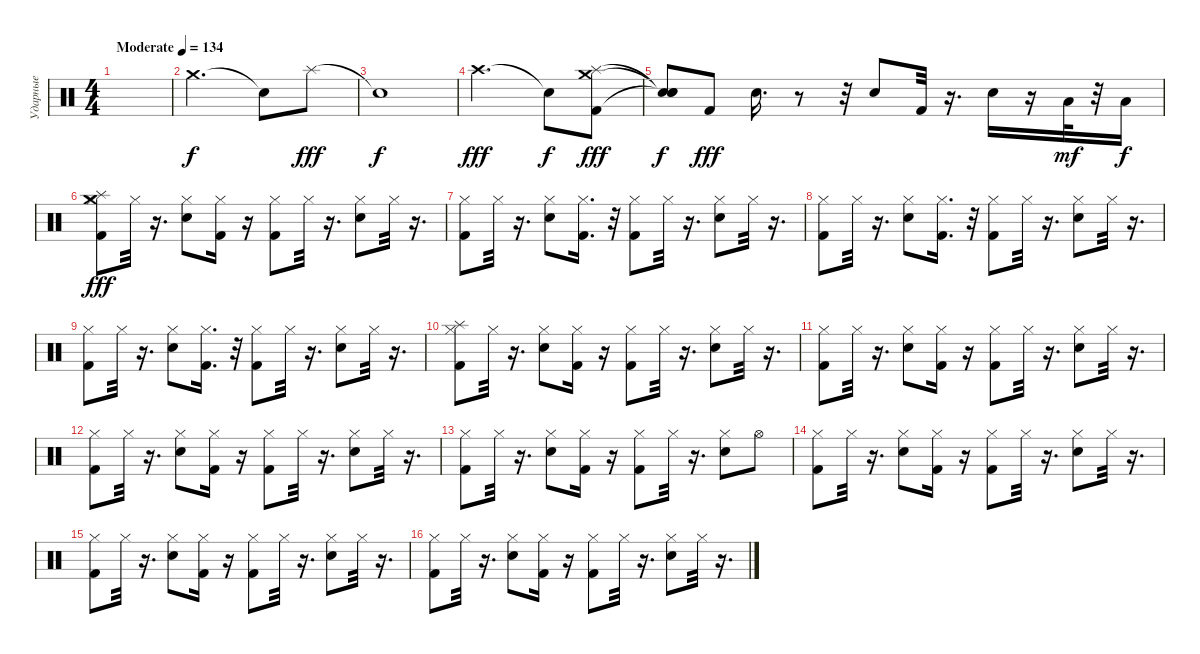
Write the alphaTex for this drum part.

\track ("Ударные" "Ударные") {instrument percussion}
\staff {score}
\articulation defaults
\ts (4 4)
\tempo (134 "Moderate")
\clef neutral
\ks c
|
"Crash medium (hit)".2{d} "Snare (hit)"{t}.8{dy f} "Splash (hit)".8{dy fff} |
"Snare (hit)"{t}.1{dy f} |
"Crash high (hit)".2{d dy fff} "Snare (hit)"{t}.8{dy f} ("Kick (hit) 2" "Crash medium (hit)" "Splash (hit)").8{dy fff} |
("Snare (hit)"{t} "Snare (hit)"{t} "Snare (hit)"{t}).8{dy f} "Kick (hit) 2".8{dy fff} "Electric Snare (hit)".16{d} r.8 r.32 "Electric Snare (hit)".8 "Kick (hit) 2".32 r.16{d} "Electric Snare (hit)".16 r.16 "Low Tom (hit)".32{dy mf} r.32 "Low Tom (hit)".16{dy f} |
("Kick (hit) 2" "Crash medium (hit)" "Splash (hit)" "Hi-Hat (closed)").8{dy fff} "Hi-Hat (closed)".32 r.16{d} ("Electric Snare (hit)" "Hi-Hat (closed)").8 ("Kick (hit) 2" "Hi-Hat (closed)").16 r.16 ("Kick (hit) 2" "Hi-Hat (closed)").8 "Hi-Hat (closed)".32 r.16{d} ("Electric Snare (hit)" "Hi-Hat (closed)").8 "Hi-Hat (closed)".32 r.16{d} |
("Kick (hit) 2" "Hi-Hat (closed)").8 "Hi-Hat (closed)".32 r.16{d} ("Electric Snare (hit)" "Hi-Hat (closed)").8 ("Kick (hit) 2" "Hi-Hat (closed)").16{d} r.32 ("Kick (hit) 2" "Hi-Hat (closed)").8 "Hi-Hat (closed)".32 r.16{d} ("Electric Snare (hit)" "Hi-Hat (closed)").8 "Hi-Hat (closed)".32 r.16{d} |
("Kick (hit) 2" "Hi-Hat (closed)").8 "Hi-Hat (closed)".32 r.16{d} ("Electric Snare (hit)" "Hi-Hat (closed)").8 ("Kick (hit) 2" "Hi-Hat (closed)").16{d} r.32 ("Kick (hit) 2" "Hi-Hat (closed)").8 "Hi-Hat (closed)".32 r.16{d} ("Electric Snare (hit)" "Hi-Hat (closed)").8 "Hi-Hat (closed)".32 r.16{d} |
("Kick (hit) 2" "Hi-Hat (closed)").8 "Hi-Hat (closed)".32 r.16{d} ("Electric Snare (hit)" "Hi-Hat (closed)").8 ("Kick (hit) 2" "Hi-Hat (closed)").16{d} r.32 ("Kick (hit) 2" "Hi-Hat (closed)").8 "Hi-Hat (closed)".32 r.16{d} ("Electric Snare (hit)" "Hi-Hat (closed)").8 "Hi-Hat (closed)".32 r.16{d} |
("Kick (hit) 2" "Hi-Hat (closed)" "Splash (hit)").8 "Hi-Hat (closed)".32 r.16{d} ("Electric Snare (hit)" "Hi-Hat (closed)").8 ("Kick (hit) 2" "Hi-Hat (closed)").16 r.16 ("Kick (hit) 2" "Hi-Hat (closed)").8 "Hi-Hat (closed)".32 r.16{d} ("Electric Snare (hit)" "Hi-Hat (closed)").8 "Hi-Hat (closed)".32 r.16{d} |
("Kick (hit) 2" "Hi-Hat (closed)").8 "Hi-Hat (closed)".32 r.16{d} ("Electric Snare (hit)" "Hi-Hat (closed)").8 ("Kick (hit) 2" "Hi-Hat (closed)").16 r.16 ("Kick (hit) 2" "Hi-Hat (closed)").8 "Hi-Hat (closed)".32 r.16{d} ("Electric Snare (hit)" "Hi-Hat (closed)").8 "Hi-Hat (closed)".32 r.16{d} |
("Kick (hit) 2" "Hi-Hat (closed)").8 "Hi-Hat (closed)".32 r.16{d} ("Electric Snare (hit)" "Hi-Hat (closed)").8 ("Kick (hit) 2" "Hi-Hat (closed)").16 r.16 ("Kick (hit) 2" "Hi-Hat (closed)").8 "Hi-Hat (closed)".32 r.16{d} ("Electric Snare (hit)" "Hi-Hat (closed)").8 "Hi-Hat (closed)".32 r.16{d} |
("Kick (hit) 2" "Hi-Hat (closed)").8 "Hi-Hat (closed)".32 r.16{d} ("Electric Snare (hit)" "Hi-Hat (closed)").8 ("Kick (hit) 2" "Hi-Hat (closed)").16 r.16 ("Kick (hit) 2" "Hi-Hat (closed)").8 "Hi-Hat (closed)".32 r.16{d} ("Electric Snare (hit)" "Hi-Hat (closed)").8 "Hi-Hat (open)".8 |
("Kick (hit) 2" "Hi-Hat (closed)").8 "Hi-Hat (closed)".32 r.16{d} ("Electric Snare (hit)" "Hi-Hat (closed)").8 ("Kick (hit) 2" "Hi-Hat (closed)").16 r.16 ("Kick (hit) 2" "Hi-Hat (closed)").8 "Hi-Hat (closed)".32 r.16{d} ("Electric Snare (hit)" "Hi-Hat (closed)").8 "Hi-Hat (closed)".32 r.16{d} |
("Kick (hit) 2" "Hi-Hat (closed)").8 "Hi-Hat (closed)".32 r.16{d} ("Electric Snare (hit)" "Hi-Hat (closed)").8 ("Kick (hit) 2" "Hi-Hat (closed)").16 r.16 ("Kick (hit) 2" "Hi-Hat (closed)").8 "Hi-Hat (closed)".32 r.16{d} ("Electric Snare (hit)" "Hi-Hat (closed)").8 "Hi-Hat (closed)".32 r.16{d} |
("Kick (hit) 2" "Hi-Hat (closed)").8 "Hi-Hat (closed)".32 r.16{d} ("Electric Snare (hit)" "Hi-Hat (closed)").8 ("Kick (hit) 2" "Hi-Hat (closed)").16 r.16 ("Kick (hit) 2" "Hi-Hat (closed)").8 "Hi-Hat (closed)".32 r.16{d} ("Electric Snare (hit)" "Hi-Hat (closed)").8 "Hi-Hat (closed)".32 r.16{d}
